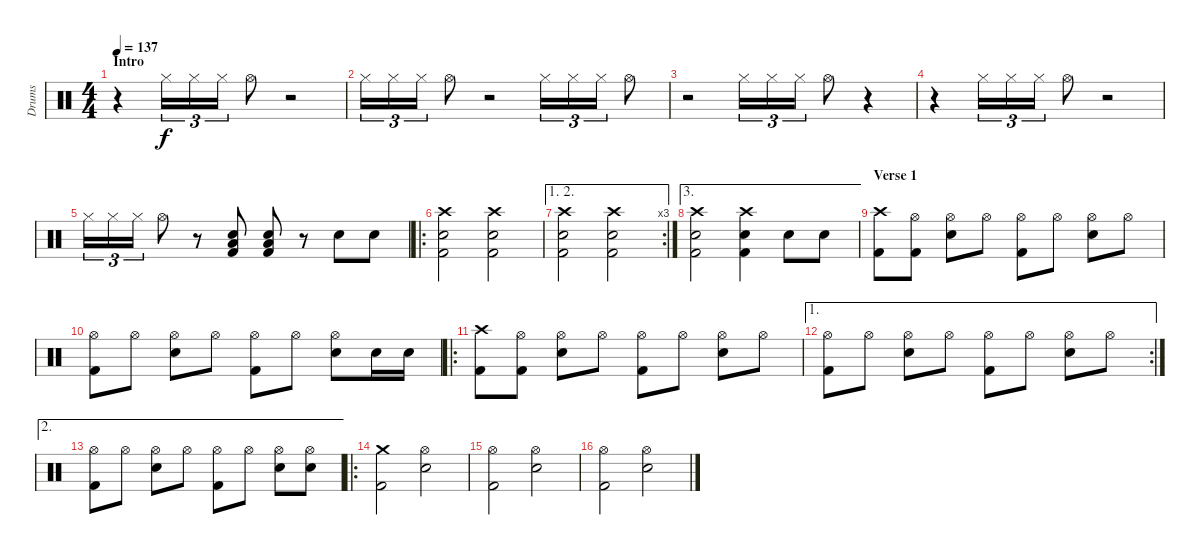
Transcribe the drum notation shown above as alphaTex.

\track ("Drums" "Drums") {instrument percussion}
\staff {score}
\articulation defaults
\ts (4 4)
\section ("" "Intro")
\tempo 137
\clef neutral
\ks c
r.4{dy f} "Hi-Hat (closed)".16{tu (3 2)} "Hi-Hat (closed)".16{tu (3 2)} "Hi-Hat (closed)".16{tu (3 2)} "Hi-Hat (open)".8 r.2 |
"Hi-Hat (closed)".16{tu (3 2)} "Hi-Hat (closed)".16{tu (3 2)} "Hi-Hat (closed)".16{tu (3 2)} "Hi-Hat (open)".8 r.2 "Hi-Hat (closed)".16{tu (3 2)} "Hi-Hat (closed)".16{tu (3 2)} "Hi-Hat (closed)".16{tu (3 2)} "Hi-Hat (open)".8 |
r.2 "Hi-Hat (closed)".16{tu (3 2)} "Hi-Hat (closed)".16{tu (3 2)} "Hi-Hat (closed)".16{tu (3 2)} "Hi-Hat (open)".8 r.4 |
r.4 "Hi-Hat (closed)".16{tu (3 2)} "Hi-Hat (closed)".16{tu (3 2)} "Hi-Hat (closed)".16{tu (3 2)} "Hi-Hat (open)".8 r.2 |
"Hi-Hat (closed)".16{tu (3 2)} "Hi-Hat (closed)".16{tu (3 2)} "Hi-Hat (closed)".16{tu (3 2)} "Hi-Hat (open)".8 r.8 ("Low Floor Tom (hit)" "Electric Snare (hit)" "Kick (hit) 2").8 ("Low Floor Tom (hit)" "Electric Snare (hit)" "Kick (hit) 2").8 r.8 "Electric Snare (hit)".8 "Electric Snare (hit)".8 |
\ro
("Crash high (hit)" "Kick (hit) 2" "Electric Snare (hit)").2 ("Crash high (hit)" "Kick (hit) 2" "Electric Snare (hit)").2 |
\ae (1 2)
\rc 3
("Crash high (hit)" "Kick (hit) 2" "Electric Snare (hit)").2 ("Crash high (hit)" "Kick (hit) 2" "Electric Snare (hit)").2 |
\ae 3
("Crash high (hit)" "Kick (hit) 2" "Electric Snare (hit)").2 ("Crash high (hit)" "Kick (hit) 2" "Electric Snare (hit)").4 "Electric Snare (hit)".8 "Electric Snare (hit)".8 |
\section ("" "Verse 1")
("Crash high (hit)" "Kick (hit) 2").8 ("Hi-Hat (open)" "Kick (hit) 2").8 ("Hi-Hat (open)" "Electric Snare (hit)").8 "Hi-Hat (open)".8 ("Hi-Hat (open)" "Kick (hit) 2").8 "Hi-Hat (open)".8 ("Hi-Hat (open)" "Electric Snare (hit)").8 "Hi-Hat (open)".8 |
("Hi-Hat (open)" "Kick (hit) 2").8 "Hi-Hat (open)".8 ("Hi-Hat (open)" "Electric Snare (hit)").8 "Hi-Hat (open)".8 ("Hi-Hat (open)" "Kick (hit) 2").8 "Hi-Hat (open)".8 ("Hi-Hat (open)" "Electric Snare (hit)").8 "Electric Snare (hit)".16 "Electric Snare (hit)".16 |
\ro
("Crash high (hit)" "Kick (hit) 2").8 ("Hi-Hat (open)" "Kick (hit) 2").8 ("Hi-Hat (open)" "Electric Snare (hit)").8 "Hi-Hat (open)".8 ("Hi-Hat (open)" "Kick (hit) 2").8 "Hi-Hat (open)".8 ("Hi-Hat (open)" "Electric Snare (hit)").8 "Hi-Hat (open)".8 |
\ae 1
\rc 2
("Hi-Hat (open)" "Kick (hit) 2").8 "Hi-Hat (open)".8 ("Hi-Hat (open)" "Electric Snare (hit)").8 "Hi-Hat (open)".8 ("Hi-Hat (open)" "Kick (hit) 2").8 "Hi-Hat (open)".8 ("Hi-Hat (open)" "Electric Snare (hit)").8 "Hi-Hat (open)".8 |
\ae 2
("Hi-Hat (open)" "Kick (hit) 2").8 "Hi-Hat (open)".8 ("Hi-Hat (open)" "Electric Snare (hit)").8 "Hi-Hat (open)".8 ("Hi-Hat (open)" "Kick (hit) 2").8 "Hi-Hat (open)".8 ("Hi-Hat (open)" "Electric Snare (hit)").8 ("Hi-Hat (open)" "Electric Snare (hit)").8 |
\ro
("Crash medium (hit)" "Kick (hit) 2").2 ("Hi-Hat (open)" "Electric Snare (hit)").2 |
("Hi-Hat (open)" "Kick (hit) 2").2 ("Hi-Hat (open)" "Electric Snare (hit)").2 |
("Hi-Hat (open)" "Kick (hit) 2").2 ("Hi-Hat (open)" "Electric Snare (hit)").2
